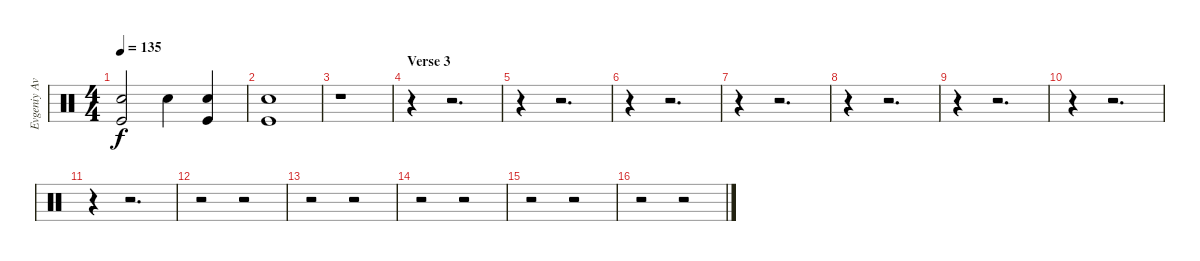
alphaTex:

\track ("Evgeniy Avdotin" "Evgeniy Av") {instrument percussion}
\staff {score}
\articulation defaults
\ts (4 4)
\tempo 135
\clef neutral
\ks c
("Snare (hit) 2" "Kick (hit)").2{dy f} "Snare (hit) 2".4 ("Snare (hit) 2" "Kick (hit)").4 |
("Snare (hit) 2" "Kick (hit)").1 |
r.1 |
\section ("" "Verse 3")
r.4 r.2{d} |
r.4 r.2{d} |
r.4 r.2{d} |
r.4 r.2{d} |
r.4 r.2{d} |
r.4 r.2{d} |
r.4 r.2{d} |
r.4 r.2{d} |
r.2 r.2 |
r.2 r.2 |
r.2 r.2 |
r.2 r.2 |
r.2 r.2
